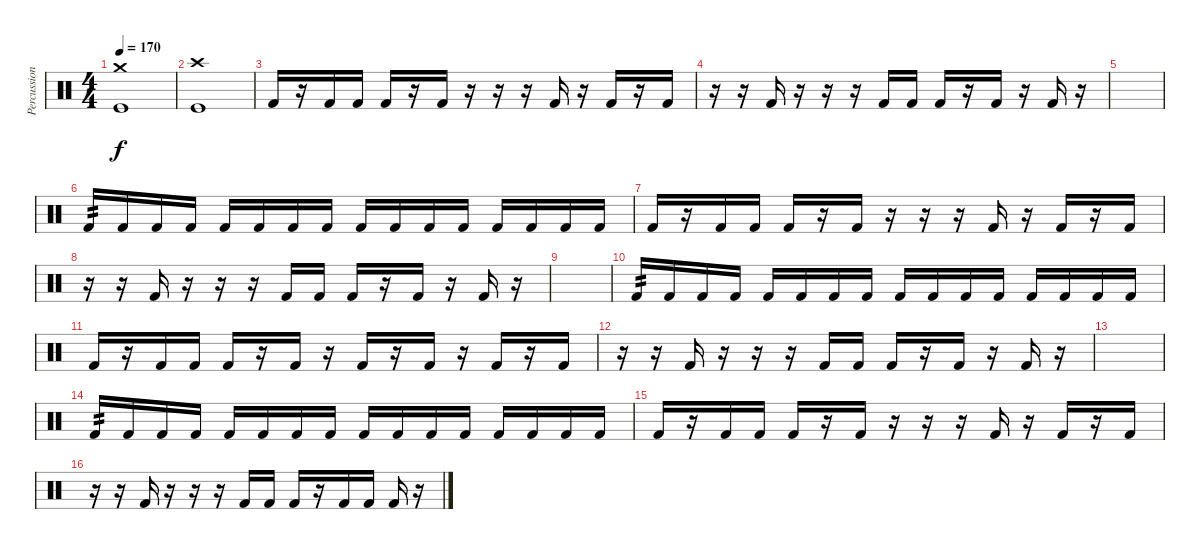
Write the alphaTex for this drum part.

\track ("Percussion" "Percussion") {solo instrument percussion}
\staff {score}
\articulation defaults
\ts (4 4)
\tempo 170
\clef neutral
\ks c
("Kick (hit)" "Crash medium (hit)").1{dy f} |
("Kick (hit)" "Crash high (hit)").1 |
"Kick (hit) 2".16 r.16 "Kick (hit) 2".16 "Kick (hit) 2".16 "Kick (hit) 2".16 r.16 "Kick (hit) 2".16 r.16 r.16 r.16 "Kick (hit) 2".16 r.16 "Kick (hit) 2".16 r.16 "Kick (hit) 2".16 |
r.16 r.16 "Kick (hit) 2".16 r.16 r.16 r.16 "Kick (hit) 2".16 "Kick (hit) 2".16 "Kick (hit) 2".16 r.16 "Kick (hit) 2".16 r.16 "Kick (hit) 2".16 r.16 |
|
"Kick (hit) 2".16{tp 2} "Kick (hit) 2".16 "Kick (hit) 2".16 "Kick (hit) 2".16 "Kick (hit) 2".16 "Kick (hit) 2".16 "Kick (hit) 2".16 "Kick (hit) 2".16 "Kick (hit) 2".16 "Kick (hit) 2".16 "Kick (hit) 2".16 "Kick (hit) 2".16 "Kick (hit) 2".16 "Kick (hit) 2".16 "Kick (hit) 2".16 "Kick (hit) 2".16 |
"Kick (hit) 2".16 r.16 "Kick (hit) 2".16 "Kick (hit) 2".16 "Kick (hit) 2".16 r.16 "Kick (hit) 2".16 r.16 r.16 r.16 "Kick (hit) 2".16 r.16 "Kick (hit) 2".16 r.16 "Kick (hit) 2".16 |
r.16 r.16 "Kick (hit) 2".16 r.16 r.16 r.16 "Kick (hit) 2".16 "Kick (hit) 2".16 "Kick (hit) 2".16 r.16 "Kick (hit) 2".16 r.16 "Kick (hit) 2".16 r.16 |
|
"Kick (hit) 2".16{tp 2} "Kick (hit) 2".16 "Kick (hit) 2".16 "Kick (hit) 2".16 "Kick (hit) 2".16 "Kick (hit) 2".16 "Kick (hit) 2".16 "Kick (hit) 2".16 "Kick (hit) 2".16 "Kick (hit) 2".16 "Kick (hit) 2".16 "Kick (hit) 2".16 "Kick (hit) 2".16 "Kick (hit) 2".16 "Kick (hit) 2".16 "Kick (hit) 2".16 |
"Kick (hit) 2".16 r.16 "Kick (hit) 2".16 "Kick (hit) 2".16 "Kick (hit) 2".16 r.16 "Kick (hit) 2".16 r.16 "Kick (hit) 2".16 r.16 "Kick (hit) 2".16 r.16 "Kick (hit) 2".16 r.16 "Kick (hit) 2".16 |
r.16 r.16 "Kick (hit) 2".16 r.16 r.16 r.16 "Kick (hit) 2".16 "Kick (hit) 2".16 "Kick (hit) 2".16 r.16 "Kick (hit) 2".16 r.16 "Kick (hit) 2".16 r.16 |
|
"Kick (hit) 2".16{tp 2} "Kick (hit) 2".16 "Kick (hit) 2".16 "Kick (hit) 2".16 "Kick (hit) 2".16 "Kick (hit) 2".16 "Kick (hit) 2".16 "Kick (hit) 2".16 "Kick (hit) 2".16 "Kick (hit) 2".16 "Kick (hit) 2".16 "Kick (hit) 2".16 "Kick (hit) 2".16 "Kick (hit) 2".16 "Kick (hit) 2".16 "Kick (hit) 2".16 |
"Kick (hit) 2".16 r.16 "Kick (hit) 2".16 "Kick (hit) 2".16 "Kick (hit) 2".16 r.16 "Kick (hit) 2".16 r.16 r.16 r.16 "Kick (hit) 2".16 r.16 "Kick (hit) 2".16 r.16 "Kick (hit) 2".16 |
r.16 r.16 "Kick (hit) 2".16 r.16 r.16 r.16 "Kick (hit) 2".16 "Kick (hit) 2".16 "Kick (hit) 2".16 r.16 "Kick (hit) 2".16 "Kick (hit) 2".16 "Kick (hit) 2".16 r.16
